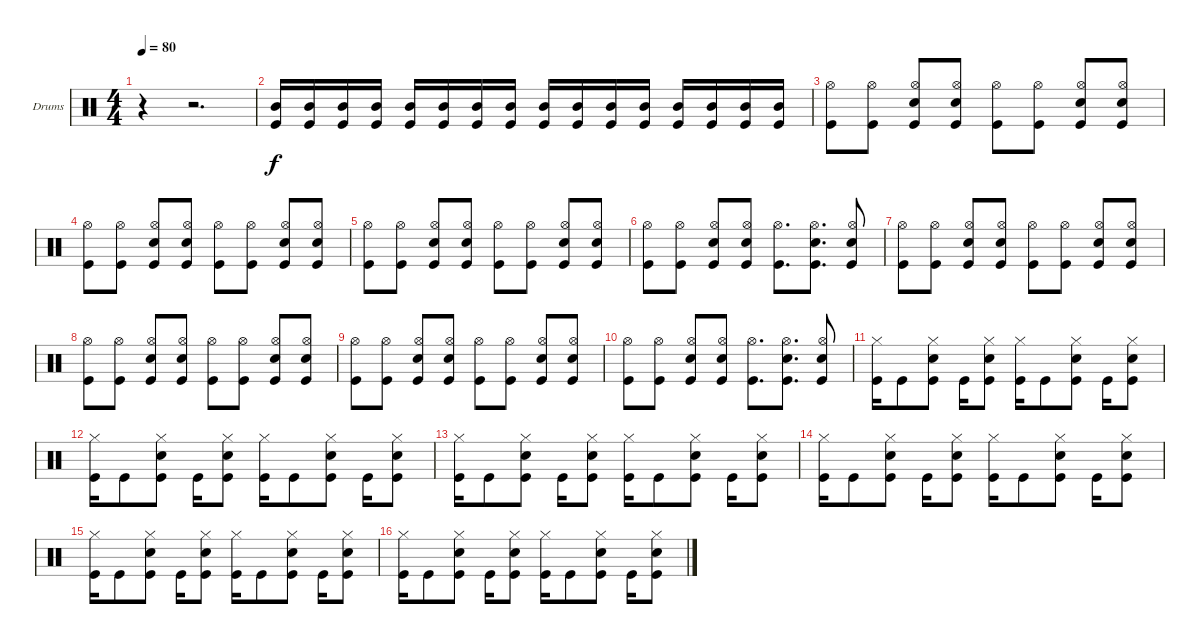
\defaultSystemsLayout 4
\bracketExtendMode groupsimilarinstruments
\firstSystemTrackNameOrientation horizontal
\otherSystemsTrackNameOrientation horizontal
\track ("Drumkit" "Drums") {instrument percussion}
\staff {score}
\articulation defaults
\ts (4 4)
\tempo 80
\clef neutral
\scale
0.472222
\ks c
r.4{dy f} r.2{d} |
\scale
0.263889 ("Mid Tom (hit)" "Kick (hit)").16 ("Mid Tom (hit)" "Kick (hit)").16 ("Mid Tom (hit)" "Kick (hit)").16 ("Mid Tom (hit)" "Kick (hit)").16 ("Mid Tom (hit)" "Kick (hit)").16 ("Mid Tom (hit)" "Kick (hit)").16 ("Mid Tom (hit)" "Kick (hit)").16 ("Mid Tom (hit)" "Kick (hit)").16 ("Mid Tom (hit)" "Kick (hit)").16 ("Mid Tom (hit)" "Kick (hit)").16 ("Mid Tom (hit)" "Kick (hit)").16 ("Mid Tom (hit)" "Kick (hit)").16 ("Mid Tom (hit)" "Kick (hit)").16 ("Mid Tom (hit)" "Kick (hit)").16 ("Mid Tom (hit)" "Kick (hit)").16 ("Mid Tom (hit)" "Kick (hit)").16 |
\scale
0.263889 ("Hi-Hat (open)" "Kick (hit)").8 ("Hi-Hat (open)" "Kick (hit)").8 ("Hi-Hat (open)" "Snare (hit) 2" "Kick (hit)").8 ("Hi-Hat (open)" "Snare (hit) 2" "Kick (hit)").8 ("Hi-Hat (open)" "Kick (hit)").8 ("Hi-Hat (open)" "Kick (hit)").8 ("Hi-Hat (open)" "Snare (hit) 2" "Kick (hit)").8 ("Hi-Hat (open)" "Snare (hit) 2" "Kick (hit)").8 |
\scale
0.333333 ("Hi-Hat (open)" "Kick (hit)").8 ("Hi-Hat (open)" "Kick (hit)").8 ("Hi-Hat (open)" "Snare (hit) 2" "Kick (hit)").8 ("Hi-Hat (open)" "Snare (hit) 2" "Kick (hit)").8 ("Hi-Hat (open)" "Kick (hit)").8 ("Hi-Hat (open)" "Kick (hit)").8 ("Hi-Hat (open)" "Snare (hit) 2" "Kick (hit)").8 ("Hi-Hat (open)" "Snare (hit) 2" "Kick (hit)").8 |
\scale
0.333333 ("Hi-Hat (open)" "Kick (hit)").8 ("Hi-Hat (open)" "Kick (hit)").8 ("Hi-Hat (open)" "Snare (hit) 2" "Kick (hit)").8 ("Hi-Hat (open)" "Snare (hit) 2" "Kick (hit)").8 ("Hi-Hat (open)" "Kick (hit)").8 ("Hi-Hat (open)" "Kick (hit)").8 ("Hi-Hat (open)" "Snare (hit) 2" "Kick (hit)").8 ("Hi-Hat (open)" "Snare (hit) 2" "Kick (hit)").8 |
\scale
0.333333 ("Hi-Hat (open)" "Kick (hit)").8 ("Hi-Hat (open)" "Kick (hit)").8 ("Hi-Hat (open)" "Snare (hit) 2" "Kick (hit)").8 ("Hi-Hat (open)" "Snare (hit) 2" "Kick (hit)").8 ("Hi-Hat (open)" "Kick (hit)").8{d} ("Hi-Hat (open)" "Snare (hit) 2" "Kick (hit)").8{d} ("Hi-Hat (open)" "Snare (hit) 2" "Kick (hit)").8 |
\scale
0.333333 ("Hi-Hat (open)" "Kick (hit)").8 ("Hi-Hat (open)" "Kick (hit)").8 ("Hi-Hat (open)" "Snare (hit) 2" "Kick (hit)").8 ("Hi-Hat (open)" "Snare (hit) 2" "Kick (hit)").8 ("Hi-Hat (open)" "Kick (hit)").8 ("Hi-Hat (open)" "Kick (hit)").8 ("Hi-Hat (open)" "Snare (hit) 2" "Kick (hit)").8 ("Hi-Hat (open)" "Snare (hit) 2" "Kick (hit)").8 |
\scale
0.333333 ("Hi-Hat (open)" "Kick (hit)").8 ("Hi-Hat (open)" "Kick (hit)").8 ("Hi-Hat (open)" "Snare (hit) 2" "Kick (hit)").8 ("Hi-Hat (open)" "Snare (hit) 2" "Kick (hit)").8 ("Hi-Hat (open)" "Kick (hit)").8 ("Hi-Hat (open)" "Kick (hit)").8 ("Hi-Hat (open)" "Snare (hit) 2" "Kick (hit)").8 ("Hi-Hat (open)" "Snare (hit) 2" "Kick (hit)").8 |
\scale
0.333333 ("Hi-Hat (open)" "Kick (hit)").8 ("Hi-Hat (open)" "Kick (hit)").8 ("Hi-Hat (open)" "Snare (hit) 2" "Kick (hit)").8 ("Hi-Hat (open)" "Snare (hit) 2" "Kick (hit)").8 ("Hi-Hat (open)" "Kick (hit)").8 ("Hi-Hat (open)" "Kick (hit)").8 ("Hi-Hat (open)" "Snare (hit) 2" "Kick (hit)").8 ("Hi-Hat (open)" "Snare (hit) 2" "Kick (hit)").8 |
\scale
0.333333 ("Hi-Hat (open)" "Kick (hit)").8 ("Hi-Hat (open)" "Kick (hit)").8 ("Hi-Hat (open)" "Snare (hit) 2" "Kick (hit)").8 ("Hi-Hat (open)" "Snare (hit) 2" "Kick (hit)").8 ("Hi-Hat (open)" "Kick (hit)").8{d} ("Hi-Hat (open)" "Snare (hit) 2" "Kick (hit)").8{d} ("Hi-Hat (open)" "Snare (hit) 2" "Kick (hit)").8 |
\scale
0.333333 ("Hi-Hat (closed)" "Kick (hit)").16 "Kick (hit)".8 ("Hi-Hat (closed)" "Snare (hit) 2" "Kick (hit)").8 "Kick (hit)".16 ("Hi-Hat (closed)" "Snare (hit) 2" "Kick (hit)").8 ("Hi-Hat (closed)" "Kick (hit)").16 "Kick (hit)".8 ("Hi-Hat (closed)" "Snare (hit) 2" "Kick (hit)").8 "Kick (hit)".16 ("Hi-Hat (closed)" "Snare (hit) 2" "Kick (hit)").8 |
\scale
0.333333 ("Hi-Hat (closed)" "Kick (hit)").16 "Kick (hit)".8 ("Hi-Hat (closed)" "Snare (hit) 2" "Kick (hit)").8 "Kick (hit)".16 ("Hi-Hat (closed)" "Snare (hit) 2" "Kick (hit)").8 ("Hi-Hat (closed)" "Kick (hit)").16 "Kick (hit)".8 ("Hi-Hat (closed)" "Snare (hit) 2" "Kick (hit)").8 "Kick (hit)".16 ("Hi-Hat (closed)" "Snare (hit) 2" "Kick (hit)").8 |
\scale
0.333333 ("Hi-Hat (closed)" "Kick (hit)").16 "Kick (hit)".8 ("Hi-Hat (closed)" "Snare (hit) 2" "Kick (hit)").8 "Kick (hit)".16 ("Hi-Hat (closed)" "Snare (hit) 2" "Kick (hit)").8 ("Hi-Hat (closed)" "Kick (hit)").16 "Kick (hit)".8 ("Hi-Hat (closed)" "Snare (hit) 2" "Kick (hit)").8 "Kick (hit)".16 ("Hi-Hat (closed)" "Snare (hit) 2" "Kick (hit)").8 |
\scale
0.333333 ("Hi-Hat (closed)" "Kick (hit)").16 "Kick (hit)".8 ("Hi-Hat (closed)" "Snare (hit) 2" "Kick (hit)").8 "Kick (hit)".16 ("Hi-Hat (closed)" "Snare (hit) 2" "Kick (hit)").8 ("Hi-Hat (closed)" "Kick (hit)").16 "Kick (hit)".8 ("Hi-Hat (closed)" "Snare (hit) 2" "Kick (hit)").8 "Kick (hit)".16 ("Hi-Hat (closed)" "Snare (hit) 2" "Kick (hit)").8 |
\scale
0.333333 ("Hi-Hat (closed)" "Kick (hit)").16 "Kick (hit)".8 ("Hi-Hat (closed)" "Snare (hit) 2" "Kick (hit)").8 "Kick (hit)".16 ("Hi-Hat (closed)" "Snare (hit) 2" "Kick (hit)").8 ("Hi-Hat (closed)" "Kick (hit)").16 "Kick (hit)".8 ("Hi-Hat (closed)" "Snare (hit) 2" "Kick (hit)").8 "Kick (hit)".16 ("Hi-Hat (closed)" "Snare (hit) 2" "Kick (hit)").8 |
\scale
0.333333 ("Hi-Hat (closed)" "Kick (hit)").16 "Kick (hit)".8 ("Hi-Hat (closed)" "Snare (hit) 2" "Kick (hit)").8 "Kick (hit)".16 ("Hi-Hat (closed)" "Snare (hit) 2" "Kick (hit)").8 ("Hi-Hat (closed)" "Kick (hit)").16 "Kick (hit)".8 ("Hi-Hat (closed)" "Snare (hit) 2" "Kick (hit)").8 "Kick (hit)".16 ("Hi-Hat (closed)" "Snare (hit) 2" "Kick (hit)").8
